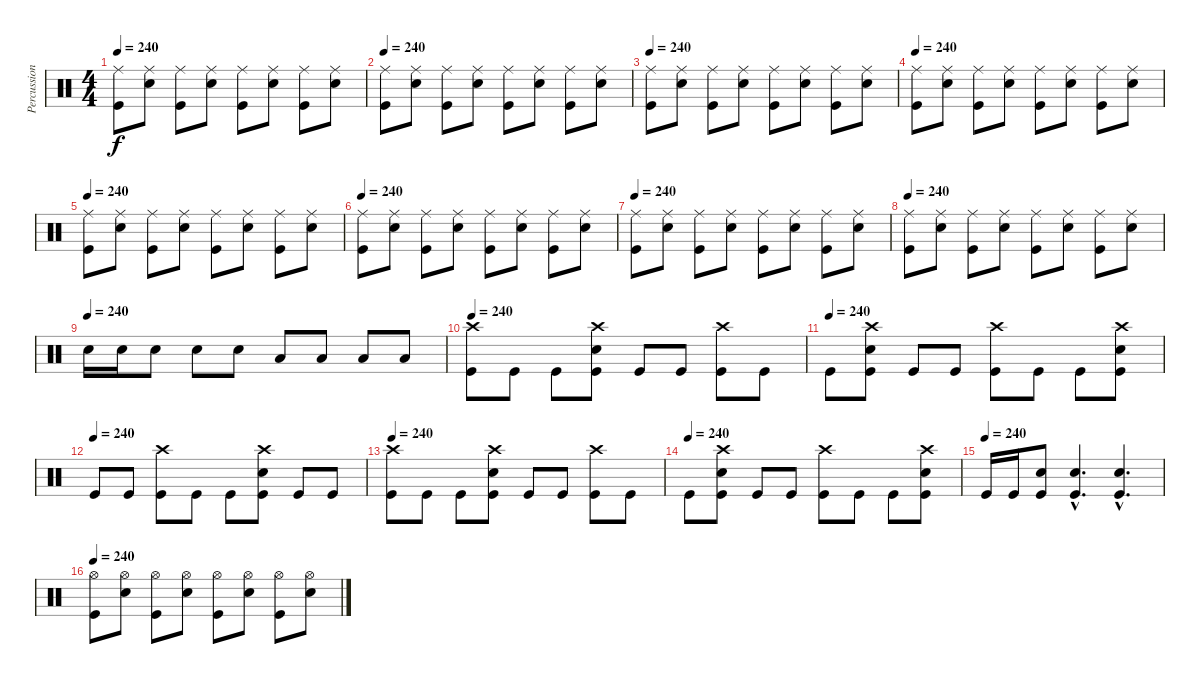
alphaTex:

\track ("Percussion" "Percussion") {instrument percussion}
\staff {score}
\articulation defaults
\ts (4 4)
\tempo 240
\clef neutral
\ks c
("Ride (middle)" "Kick (hit)").8{dy f} ("Electric Snare (hit)" "Ride (middle)").8 ("Ride (middle)" "Kick (hit)").8 ("Electric Snare (hit)" "Ride (middle)").8 ("Ride (middle)" "Kick (hit)").8 ("Electric Snare (hit)" "Ride (middle)").8 ("Ride (middle)" "Kick (hit)").8 ("Electric Snare (hit)" "Ride (middle)").8 |
\tempo 240
("Ride (middle)" "Kick (hit)").8 ("Electric Snare (hit)" "Ride (middle)").8 ("Ride (middle)" "Kick (hit)").8 ("Electric Snare (hit)" "Ride (middle)").8 ("Ride (middle)" "Kick (hit)").8 ("Electric Snare (hit)" "Ride (middle)").8 ("Ride (middle)" "Kick (hit)").8 ("Electric Snare (hit)" "Ride (middle)").8 |
\tempo 240
("Ride (middle)" "Kick (hit)").8 ("Electric Snare (hit)" "Ride (middle)").8 ("Ride (middle)" "Kick (hit)").8 ("Electric Snare (hit)" "Ride (middle)").8 ("Ride (middle)" "Kick (hit)").8 ("Electric Snare (hit)" "Ride (middle)").8 ("Ride (middle)" "Kick (hit)").8 ("Electric Snare (hit)" "Ride (middle)").8 |
\tempo 240
("Ride (middle)" "Kick (hit)").8 ("Electric Snare (hit)" "Ride (middle)").8 ("Ride (middle)" "Kick (hit)").8 ("Electric Snare (hit)" "Ride (middle)").8 ("Ride (middle)" "Kick (hit)").8 ("Electric Snare (hit)" "Ride (middle)").8 ("Ride (middle)" "Kick (hit)").8 ("Electric Snare (hit)" "Ride (middle)").8 |
\tempo 240
("Ride (middle)" "Kick (hit)").8 ("Electric Snare (hit)" "Ride (middle)").8 ("Ride (middle)" "Kick (hit)").8 ("Electric Snare (hit)" "Ride (middle)").8 ("Ride (middle)" "Kick (hit)").8 ("Electric Snare (hit)" "Ride (middle)").8 ("Ride (middle)" "Kick (hit)").8 ("Electric Snare (hit)" "Ride (middle)").8 |
\tempo 240
("Ride (middle)" "Kick (hit)").8 ("Electric Snare (hit)" "Ride (middle)").8 ("Ride (middle)" "Kick (hit)").8 ("Electric Snare (hit)" "Ride (middle)").8 ("Ride (middle)" "Kick (hit)").8 ("Electric Snare (hit)" "Ride (middle)").8 ("Ride (middle)" "Kick (hit)").8 ("Electric Snare (hit)" "Ride (middle)").8 |
\tempo 240
("Ride (middle)" "Kick (hit)").8 ("Electric Snare (hit)" "Ride (middle)").8 ("Ride (middle)" "Kick (hit)").8 ("Electric Snare (hit)" "Ride (middle)").8 ("Ride (middle)" "Kick (hit)").8 ("Electric Snare (hit)" "Ride (middle)").8 ("Ride (middle)" "Kick (hit)").8 ("Electric Snare (hit)" "Ride (middle)").8 |
\tempo 240
("Ride (middle)" "Kick (hit)").8 ("Electric Snare (hit)" "Ride (middle)").8 ("Ride (middle)" "Kick (hit)").8 ("Electric Snare (hit)" "Ride (middle)").8 ("Ride (middle)" "Kick (hit)").8 ("Electric Snare (hit)" "Ride (middle)").8 ("Ride (middle)" "Kick (hit)").8 ("Electric Snare (hit)" "Ride (middle)").8 |
\tempo (240)
"Electric Snare (hit)".16 "Electric Snare (hit)".16 "Electric Snare (hit)".8 "Electric Snare (hit)".8 "Electric Snare (hit)".8 "Low Tom (hit)".8 "Low Tom (hit)".8 "Low Tom (hit)".8 "Low Floor Tom (hit)".8 |
\tempo 240
("Crash high (hit)" "Kick (hit)").8 "Kick (hit)".8 "Kick (hit)".8 ("Electric Snare (hit)" "Crash high (hit)" "Kick (hit)").8 "Kick (hit)".8 "Kick (hit)".8 ("Crash high (hit)" "Kick (hit)").8 "Kick (hit)".8 |
\tempo (240)
"Kick (hit)".8 ("Electric Snare (hit)" "Crash high (hit)" "Kick (hit)").8 "Kick (hit)".8 "Kick (hit)".8 ("Crash high (hit)" "Kick (hit)").8 "Kick (hit)".8 "Kick (hit)".8 ("Electric Snare (hit)" "Crash high (hit)" "Kick (hit)").8 |
\tempo (240)
"Kick (hit)".8 "Kick (hit)".8 ("Crash high (hit)" "Kick (hit)").8 "Kick (hit)".8 "Kick (hit)".8 ("Electric Snare (hit)" "Crash high (hit)" "Kick (hit)").8 "Kick (hit)".8 "Kick (hit)".8 |
\tempo 240
("Crash high (hit)" "Kick (hit)").8 "Kick (hit)".8 "Kick (hit)".8 ("Electric Snare (hit)" "Crash high (hit)" "Kick (hit)").8 "Kick (hit)".8 "Kick (hit)".8 ("Crash high (hit)" "Kick (hit)").8 "Kick (hit)".8 |
\tempo (240)
"Kick (hit)".8 ("Electric Snare (hit)" "Crash high (hit)" "Kick (hit)").8 "Kick (hit)".8 "Kick (hit)".8 ("Crash high (hit)" "Kick (hit)").8 "Kick (hit)".8 "Kick (hit)".8 ("Electric Snare (hit)" "Crash high (hit)" "Kick (hit)").8 |
\tempo (240)
"Kick (hit)".16 "Kick (hit)".16 ("Electric Snare (hit)" "Kick (hit)").8 ("Electric Snare (hit)"{hac} "Kick (hit)"{hac}).4{d} ("Electric Snare (hit)"{hac} "Kick (hit)"{hac}).4{d} |
\tempo 240
("Hi-Hat (open)" "Kick (hit)").8 ("Electric Snare (hit)" "Hi-Hat (open)").8 ("Hi-Hat (open)" "Kick (hit)").8 ("Electric Snare (hit)" "Hi-Hat (open)").8 ("Hi-Hat (open)" "Kick (hit)").8 ("Electric Snare (hit)" "Hi-Hat (open)").8 ("Hi-Hat (open)" "Kick (hit)").8 ("Electric Snare (hit)" "Hi-Hat (open)").8
